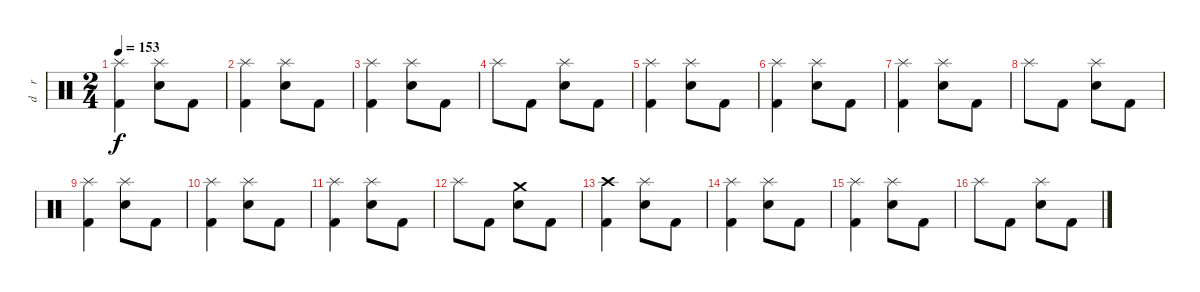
\track ("d    r     u    m    s" "d    r    ") {instrument percussion}
\staff {score}
\articulation defaults
\ts (2 4)
\tempo 153
\clef neutral
\ks c
("Splash (hit)" "Kick (hit) 2").4{dy f} ("Splash (hit)" "Electric Snare (hit)").8 "Kick (hit) 2".8 |
("Splash (hit)" "Kick (hit) 2").4 ("Splash (hit)" "Electric Snare (hit)").8 "Kick (hit) 2".8 |
("Splash (hit)" "Kick (hit) 2").4 ("Splash (hit)" "Electric Snare (hit)").8 "Kick (hit) 2".8 |
"Splash (hit)".8 "Kick (hit) 2".8 ("Splash (hit)" "Electric Snare (hit)").8 "Kick (hit) 2".8 |
("Splash (hit)" "Kick (hit) 2").4 ("Splash (hit)" "Electric Snare (hit)").8 "Kick (hit) 2".8 |
("Splash (hit)" "Kick (hit) 2").4 ("Splash (hit)" "Electric Snare (hit)").8 "Kick (hit) 2".8 |
("Splash (hit)" "Kick (hit) 2").4 ("Splash (hit)" "Electric Snare (hit)").8 "Kick (hit) 2".8 |
"Splash (hit)".8 "Kick (hit) 2".8 ("Splash (hit)" "Electric Snare (hit)").8 "Kick (hit) 2".8 |
("Splash (hit)" "Kick (hit) 2").4 ("Splash (hit)" "Electric Snare (hit)").8 "Kick (hit) 2".8 |
("Splash (hit)" "Kick (hit) 2").4 ("Splash (hit)" "Electric Snare (hit)").8 "Kick (hit) 2".8 |
("Splash (hit)" "Kick (hit) 2").4 ("Splash (hit)" "Electric Snare (hit)").8 "Kick (hit) 2".8 |
"Splash (hit)".8 "Kick (hit) 2".8 ("Crash medium (hit)" "Electric Snare (hit)").8 "Kick (hit) 2".8 |
("Crash high (hit)" "Kick (hit) 2").4 ("Splash (hit)" "Electric Snare (hit)").8 "Kick (hit) 2".8 |
("Splash (hit)" "Kick (hit) 2").4 ("Splash (hit)" "Electric Snare (hit)").8 "Kick (hit) 2".8 |
("Splash (hit)" "Kick (hit) 2").4 ("Splash (hit)" "Electric Snare (hit)").8 "Kick (hit) 2".8 |
"Splash (hit)".8 "Kick (hit) 2".8 ("Splash (hit)" "Electric Snare (hit)").8 "Kick (hit) 2".8
